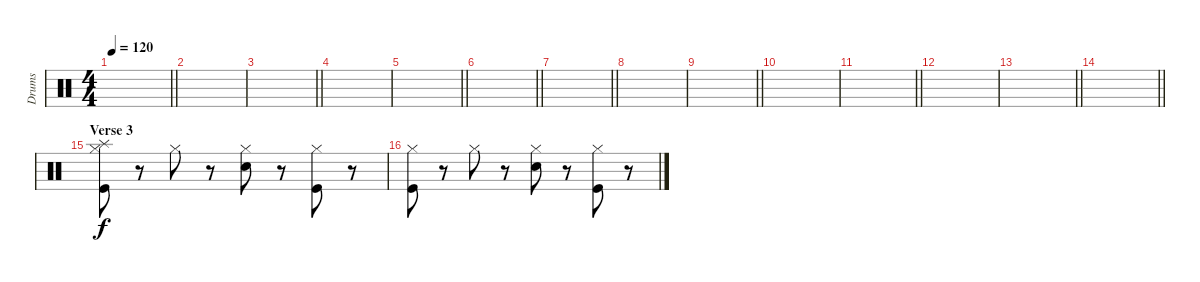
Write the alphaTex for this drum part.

\track ("Drums" "Drums") {instrument percussion}
\staff {score}
\articulation defaults
\ts (4 4)
\tempo 120
\clef neutral
\barLineRight lightlight
\ks c
|
|
\barLineRight lightlight
|
|
\barLineRight lightlight
|
\barLineRight lightlight
|
\barLineRight lightlight
|
|
\barLineRight lightlight
|
|
\barLineRight lightlight
|
|
\barLineRight lightlight
|
\barLineRight lightlight
|
\section ("" "Verse 3")
("Splash (hit)" "Hi-Hat (closed)" "Kick (hit)").8 r.8 "Hi-Hat (closed)".8 r.8 ("Hi-Hat (closed)" "Snare (hit) 2").8 r.8 ("Hi-Hat (closed)" "Kick (hit)").8 r.8 |
("Hi-Hat (closed)" "Kick (hit)").8 r.8 "Hi-Hat (closed)".8 r.8 ("Hi-Hat (closed)" "Snare (hit) 2").8 r.8 ("Hi-Hat (closed)" "Kick (hit)").8 r.8
